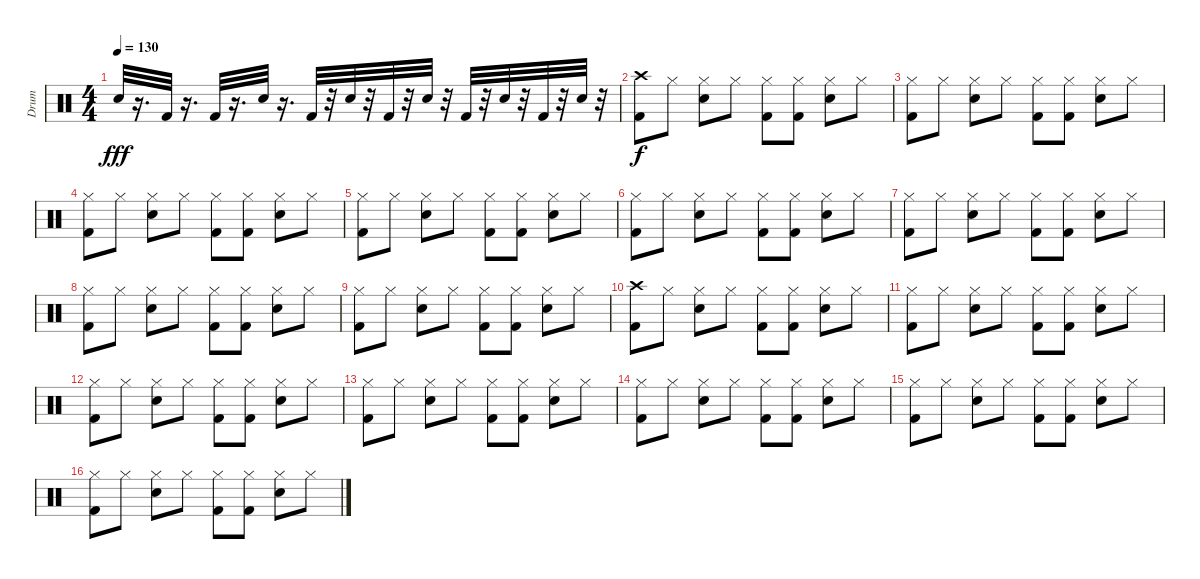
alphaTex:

\track ("Drum" "Drum") {instrument percussion}
\staff {score}
\articulation defaults
\ts (4 4)
\tempo 130
\clef neutral
\ks c "Snare (hit) 2".32{dy fff}
r.16{d} "Kick (hit) 2".32 r.16{d} "Kick (hit) 2".32 r.16{d} "Snare (hit) 2".32 r.16{d} "Kick (hit) 2".32 r.32 "Snare (hit) 2".32 r.32 "Kick (hit) 2".32 r.32 "Snare (hit) 2".32 r.32 "Kick (hit) 2".32 r.32 "Snare (hit) 2".32 r.32 "Kick (hit) 2".32 r.32 "Snare (hit) 2".32 r.32 |
("Crash high (hit)" "Kick (hit) 2").8{dy f} "Hi-Hat (closed)".8 ("Hi-Hat (closed)" "Snare (hit) 2").8 "Hi-Hat (closed)".8 ("Hi-Hat (closed)" "Kick (hit) 2").8 ("Hi-Hat (closed)" "Kick (hit) 2").8 ("Hi-Hat (closed)" "Snare (hit) 2").8 "Hi-Hat (closed)".8 |
("Hi-Hat (closed)" "Kick (hit) 2").8 "Hi-Hat (closed)".8 ("Hi-Hat (closed)" "Snare (hit) 2").8 "Hi-Hat (closed)".8 ("Hi-Hat (closed)" "Kick (hit) 2").8 ("Hi-Hat (closed)" "Kick (hit) 2").8 ("Hi-Hat (closed)" "Snare (hit) 2").8 "Hi-Hat (closed)".8 |
("Hi-Hat (closed)" "Kick (hit) 2").8 "Hi-Hat (closed)".8 ("Hi-Hat (closed)" "Snare (hit) 2").8 "Hi-Hat (closed)".8 ("Hi-Hat (closed)" "Kick (hit) 2").8 ("Hi-Hat (closed)" "Kick (hit) 2").8 ("Hi-Hat (closed)" "Snare (hit) 2").8 "Hi-Hat (closed)".8 |
("Hi-Hat (closed)" "Kick (hit) 2").8 "Hi-Hat (closed)".8 ("Hi-Hat (closed)" "Snare (hit) 2").8 "Hi-Hat (closed)".8 ("Hi-Hat (closed)" "Kick (hit) 2").8 ("Hi-Hat (closed)" "Kick (hit) 2").8 ("Hi-Hat (closed)" "Snare (hit) 2").8 "Hi-Hat (closed)".8 |
("Hi-Hat (closed)" "Kick (hit) 2").8 "Hi-Hat (closed)".8 ("Hi-Hat (closed)" "Snare (hit) 2").8 "Hi-Hat (closed)".8 ("Hi-Hat (closed)" "Kick (hit) 2").8 ("Hi-Hat (closed)" "Kick (hit) 2").8 ("Hi-Hat (closed)" "Snare (hit) 2").8 "Hi-Hat (closed)".8 |
("Hi-Hat (closed)" "Kick (hit) 2").8 "Hi-Hat (closed)".8 ("Hi-Hat (closed)" "Snare (hit) 2").8 "Hi-Hat (closed)".8 ("Hi-Hat (closed)" "Kick (hit) 2").8 ("Hi-Hat (closed)" "Kick (hit) 2").8 ("Hi-Hat (closed)" "Snare (hit) 2").8 "Hi-Hat (closed)".8 |
("Hi-Hat (closed)" "Kick (hit) 2").8 "Hi-Hat (closed)".8 ("Hi-Hat (closed)" "Snare (hit) 2").8 "Hi-Hat (closed)".8 ("Hi-Hat (closed)" "Kick (hit) 2").8 ("Hi-Hat (closed)" "Kick (hit) 2").8 ("Hi-Hat (closed)" "Snare (hit) 2").8 "Hi-Hat (closed)".8 |
("Hi-Hat (closed)" "Kick (hit) 2").8 "Hi-Hat (closed)".8 ("Hi-Hat (closed)" "Snare (hit) 2").8 "Hi-Hat (closed)".8 ("Hi-Hat (closed)" "Kick (hit) 2").8 ("Hi-Hat (closed)" "Kick (hit) 2").8 ("Hi-Hat (closed)" "Snare (hit) 2").8 "Hi-Hat (closed)".8 |
("Crash high (hit)" "Kick (hit) 2").8 "Hi-Hat (closed)".8 ("Hi-Hat (closed)" "Snare (hit) 2").8 "Hi-Hat (closed)".8 ("Hi-Hat (closed)" "Kick (hit) 2").8 ("Hi-Hat (closed)" "Kick (hit) 2").8 ("Hi-Hat (closed)" "Snare (hit) 2").8 "Hi-Hat (closed)".8 |
("Hi-Hat (closed)" "Kick (hit) 2").8 "Hi-Hat (closed)".8 ("Hi-Hat (closed)" "Snare (hit) 2").8 "Hi-Hat (closed)".8 ("Hi-Hat (closed)" "Kick (hit) 2").8 ("Hi-Hat (closed)" "Kick (hit) 2").8 ("Hi-Hat (closed)" "Snare (hit) 2").8 "Hi-Hat (closed)".8 |
("Hi-Hat (closed)" "Kick (hit) 2").8 "Hi-Hat (closed)".8 ("Hi-Hat (closed)" "Snare (hit) 2").8 "Hi-Hat (closed)".8 ("Hi-Hat (closed)" "Kick (hit) 2").8 ("Hi-Hat (closed)" "Kick (hit) 2").8 ("Hi-Hat (closed)" "Snare (hit) 2").8 "Hi-Hat (closed)".8 |
("Hi-Hat (closed)" "Kick (hit) 2").8 "Hi-Hat (closed)".8 ("Hi-Hat (closed)" "Snare (hit) 2").8 "Hi-Hat (closed)".8 ("Hi-Hat (closed)" "Kick (hit) 2").8 ("Hi-Hat (closed)" "Kick (hit) 2").8 ("Hi-Hat (closed)" "Snare (hit) 2").8 "Hi-Hat (closed)".8 |
("Hi-Hat (closed)" "Kick (hit) 2").8 "Hi-Hat (closed)".8 ("Hi-Hat (closed)" "Snare (hit) 2").8 "Hi-Hat (closed)".8 ("Hi-Hat (closed)" "Kick (hit) 2").8 ("Hi-Hat (closed)" "Kick (hit) 2").8 ("Hi-Hat (closed)" "Snare (hit) 2").8 "Hi-Hat (closed)".8 |
("Hi-Hat (closed)" "Kick (hit) 2").8 "Hi-Hat (closed)".8 ("Hi-Hat (closed)" "Snare (hit) 2").8 "Hi-Hat (closed)".8 ("Hi-Hat (closed)" "Kick (hit) 2").8 ("Hi-Hat (closed)" "Kick (hit) 2").8 ("Hi-Hat (closed)" "Snare (hit) 2").8 "Hi-Hat (closed)".8 |
("Hi-Hat (closed)" "Kick (hit) 2").8 "Hi-Hat (closed)".8 ("Hi-Hat (closed)" "Snare (hit) 2").8 "Hi-Hat (closed)".8 ("Hi-Hat (closed)" "Kick (hit) 2").8 ("Hi-Hat (closed)" "Kick (hit) 2").8 ("Hi-Hat (closed)" "Snare (hit) 2").8 "Hi-Hat (closed)".8
